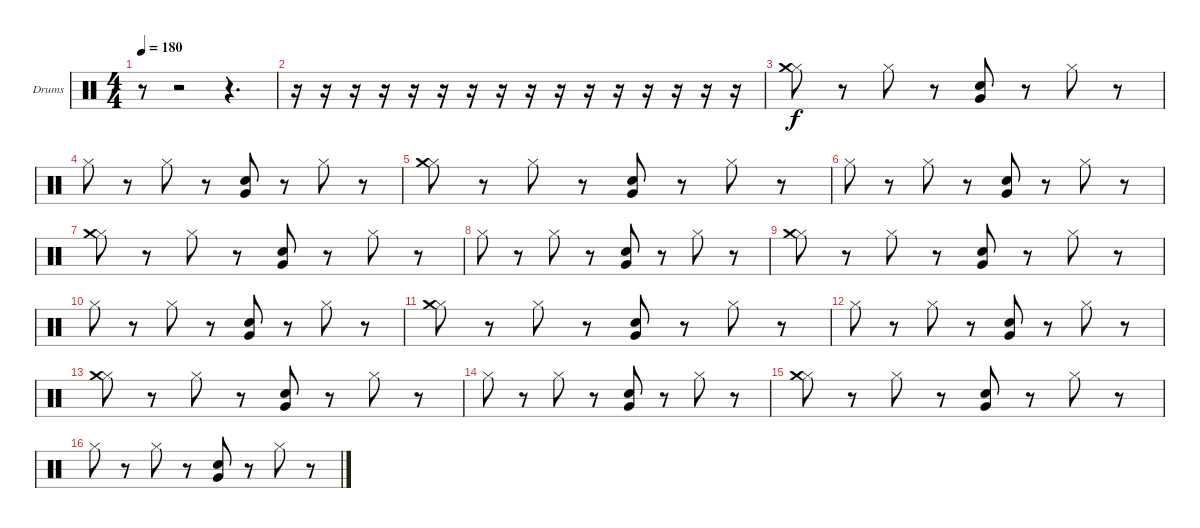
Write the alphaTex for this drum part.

\bracketExtendMode groupsimilarinstruments
\firstSystemTrackNameOrientation horizontal
\otherSystemsTrackNameOrientation horizontal
\track ("Drumkit" "Drums") {instrument percussion}
\staff {score}
\articulation defaults
\ts (4 4)
\tempo 180
\clef neutral
\ks c
r.8{dy f} r.2 r.4{d} |
r.16 r.16 r.16 r.16 r.16 r.16 r.16 r.16 r.16 r.16 r.16 r.16 r.16 r.16 r.16 r.16 |
("Hi-Hat (closed)" "Crash medium (hit)").8 r.8 "Hi-Hat (closed)".8 r.8 ("Snare (hit) 2" "Very Low Tom (hit)").8 r.8 "Hi-Hat (closed)".8 r.8 |
"Hi-Hat (closed)".8 r.8 "Hi-Hat (closed)".8 r.8 ("Snare (hit) 2" "Very Low Tom (hit)").8 r.8 "Hi-Hat (closed)".8 r.8 |
("Hi-Hat (closed)" "Crash medium (hit)").8 r.8 "Hi-Hat (closed)".8 r.8 ("Snare (hit) 2" "Very Low Tom (hit)").8 r.8 "Hi-Hat (closed)".8 r.8 |
"Hi-Hat (closed)".8 r.8 "Hi-Hat (closed)".8 r.8 ("Snare (hit) 2" "Very Low Tom (hit)").8 r.8 "Hi-Hat (closed)".8 r.8 |
("Hi-Hat (closed)" "Crash medium (hit)").8 r.8 "Hi-Hat (closed)".8 r.8 ("Snare (hit) 2" "Very Low Tom (hit)").8 r.8 "Hi-Hat (closed)".8 r.8 |
"Hi-Hat (closed)".8 r.8 "Hi-Hat (closed)".8 r.8 ("Snare (hit) 2" "Very Low Tom (hit)").8 r.8 "Hi-Hat (closed)".8 r.8 |
("Hi-Hat (closed)" "Crash medium (hit)").8 r.8 "Hi-Hat (closed)".8 r.8 ("Snare (hit) 2" "Very Low Tom (hit)").8 r.8 "Hi-Hat (closed)".8 r.8 |
"Hi-Hat (closed)".8 r.8 "Hi-Hat (closed)".8 r.8 ("Snare (hit) 2" "Very Low Tom (hit)").8 r.8 "Hi-Hat (closed)".8 r.8 |
("Hi-Hat (closed)" "Crash medium (hit)").8 r.8 "Hi-Hat (closed)".8 r.8 ("Snare (hit) 2" "Very Low Tom (hit)").8 r.8 "Hi-Hat (closed)".8 r.8 |
"Hi-Hat (closed)".8 r.8 "Hi-Hat (closed)".8 r.8 ("Snare (hit) 2" "Very Low Tom (hit)").8 r.8 "Hi-Hat (closed)".8 r.8 |
("Hi-Hat (closed)" "Crash medium (hit)").8 r.8 "Hi-Hat (closed)".8 r.8 ("Snare (hit) 2" "Very Low Tom (hit)").8 r.8 "Hi-Hat (closed)".8 r.8 |
"Hi-Hat (closed)".8 r.8 "Hi-Hat (closed)".8 r.8 ("Snare (hit) 2" "Very Low Tom (hit)").8 r.8 "Hi-Hat (closed)".8 r.8 |
("Hi-Hat (closed)" "Crash medium (hit)").8 r.8 "Hi-Hat (closed)".8 r.8 ("Snare (hit) 2" "Very Low Tom (hit)").8 r.8 "Hi-Hat (closed)".8 r.8 |
"Hi-Hat (closed)".8 r.8 "Hi-Hat (closed)".8 r.8 ("Snare (hit) 2" "Very Low Tom (hit)").8 r.8 "Hi-Hat (closed)".8 r.8
